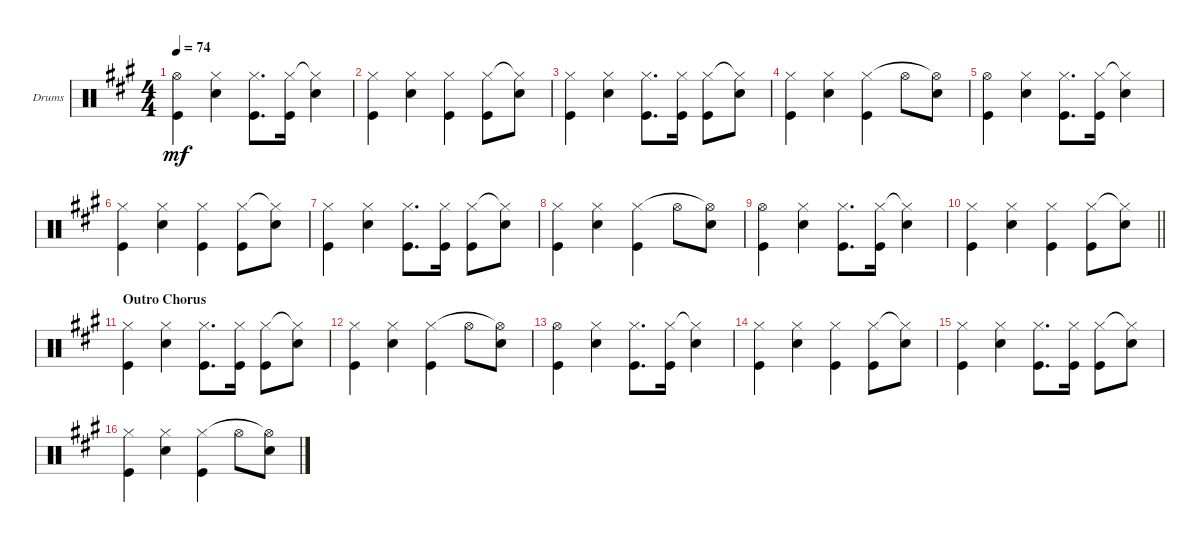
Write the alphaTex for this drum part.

\bracketExtendMode groupsimilarinstruments
\firstSystemTrackNameOrientation horizontal
\otherSystemsTrackNameOrientation horizontal
\track ("Drumkit" "Drums") {instrument percussion}
\staff {score}
\articulation defaults
\ts (4 4)
\tempo 74
\clef neutral
\scale
0.333333
\ks a
("Kick (hit)" "Hi-Hat (open)").4{dy mf} ("Snare (hit) 2" "Hi-Hat (closed)").4 ("Kick (hit)" "Hi-Hat (closed)").8{d} ("Kick (hit)" "Hi-Hat (closed)").16 ("Snare (hit) 2" "Hi-Hat (closed)"{t}).4 |
\scale
0.333333 ("Kick (hit)" "Hi-Hat (closed)").4 ("Snare (hit) 2" "Hi-Hat (closed)").4 ("Kick (hit)" "Hi-Hat (closed)").4 ("Kick (hit)" "Hi-Hat (closed)").8 ("Snare (hit) 2" "Hi-Hat (closed)"{t}).8 |
\scale
0.333333 ("Kick (hit)" "Hi-Hat (closed)").4 ("Snare (hit) 2" "Hi-Hat (closed)").4 ("Kick (hit)" "Hi-Hat (closed)").8{d} ("Kick (hit)" "Hi-Hat (closed)").16 ("Kick (hit)" "Hi-Hat (closed)").8 ("Snare (hit) 2" "Hi-Hat (closed)"{t}).8 |
\scale
0.333333 ("Kick (hit)" "Hi-Hat (closed)").4 ("Snare (hit) 2" "Hi-Hat (closed)").4 ("Kick (hit)" "Hi-Hat (closed)").4 "Hi-Hat (open)".8 ("Snare (hit) 2" "Hi-Hat (open)"{t}).8 |
\scale
0.333333 ("Kick (hit)" "Hi-Hat (open)").4 ("Snare (hit) 2" "Hi-Hat (closed)").4 ("Kick (hit)" "Hi-Hat (closed)").8{d} ("Kick (hit)" "Hi-Hat (closed)").16 ("Snare (hit) 2" "Hi-Hat (closed)"{t}).4 |
\scale
0.333333 ("Kick (hit)" "Hi-Hat (closed)").4 ("Snare (hit) 2" "Hi-Hat (closed)").4 ("Kick (hit)" "Hi-Hat (closed)").4 ("Kick (hit)" "Hi-Hat (closed)").8 ("Snare (hit) 2" "Hi-Hat (closed)"{t}).8 |
\scale
0.333333 ("Kick (hit)" "Hi-Hat (closed)").4 ("Snare (hit) 2" "Hi-Hat (closed)").4 ("Kick (hit)" "Hi-Hat (closed)").8{d} ("Kick (hit)" "Hi-Hat (closed)").16 ("Kick (hit)" "Hi-Hat (closed)").8 ("Snare (hit) 2" "Hi-Hat (closed)"{t}).8 |
\scale
0.333333 ("Kick (hit)" "Hi-Hat (closed)").4 ("Snare (hit) 2" "Hi-Hat (closed)").4 ("Kick (hit)" "Hi-Hat (closed)").4 "Hi-Hat (open)".8 ("Snare (hit) 2" "Hi-Hat (open)"{t}).8 |
\scale
0.333333 ("Kick (hit)" "Hi-Hat (open)").4 ("Snare (hit) 2" "Hi-Hat (closed)").4 ("Kick (hit)" "Hi-Hat (closed)").8{d} ("Kick (hit)" "Hi-Hat (closed)").16 ("Snare (hit) 2" "Hi-Hat (closed)"{t}).4 |
\scale
0.333333
\barLineRight lightlight
("Kick (hit)" "Hi-Hat (closed)").4 ("Snare (hit) 2" "Hi-Hat (closed)").4 ("Kick (hit)" "Hi-Hat (closed)").4 ("Kick (hit)" "Hi-Hat (closed)").8 ("Snare (hit) 2" "Hi-Hat (closed)"{t}).8 |
\section ("" "Outro Chorus")
\scale
0.333333 ("Kick (hit)" "Hi-Hat (closed)").4 ("Snare (hit) 2" "Hi-Hat (closed)").4 ("Kick (hit)" "Hi-Hat (closed)").8{d} ("Kick (hit)" "Hi-Hat (closed)").16 ("Kick (hit)" "Hi-Hat (closed)").8 ("Snare (hit) 2" "Hi-Hat (closed)"{t}).8 |
\scale
0.333333 ("Kick (hit)" "Hi-Hat (closed)").4 ("Snare (hit) 2" "Hi-Hat (closed)").4 ("Kick (hit)" "Hi-Hat (closed)").4 "Hi-Hat (open)".8 ("Snare (hit) 2" "Hi-Hat (open)"{t}).8 |
\scale
0.333333 ("Kick (hit)" "Hi-Hat (open)").4 ("Snare (hit) 2" "Hi-Hat (closed)").4 ("Kick (hit)" "Hi-Hat (closed)").8{d} ("Kick (hit)" "Hi-Hat (closed)").16 ("Snare (hit) 2" "Hi-Hat (closed)"{t}).4 |
\scale
0.333333 ("Kick (hit)" "Hi-Hat (closed)").4 ("Snare (hit) 2" "Hi-Hat (closed)").4 ("Kick (hit)" "Hi-Hat (closed)").4 ("Kick (hit)" "Hi-Hat (closed)").8 ("Snare (hit) 2" "Hi-Hat (closed)"{t}).8 |
\scale
0.333333 ("Kick (hit)" "Hi-Hat (closed)").4 ("Snare (hit) 2" "Hi-Hat (closed)").4 ("Kick (hit)" "Hi-Hat (closed)").8{d} ("Kick (hit)" "Hi-Hat (closed)").16 ("Kick (hit)" "Hi-Hat (closed)").8 ("Snare (hit) 2" "Hi-Hat (closed)"{t}).8 |
\scale
0.333333 ("Kick (hit)" "Hi-Hat (closed)").4 ("Snare (hit) 2" "Hi-Hat (closed)").4 ("Kick (hit)" "Hi-Hat (closed)").4 "Hi-Hat (open)".8 ("Snare (hit) 2" "Hi-Hat (open)"{t}).8
